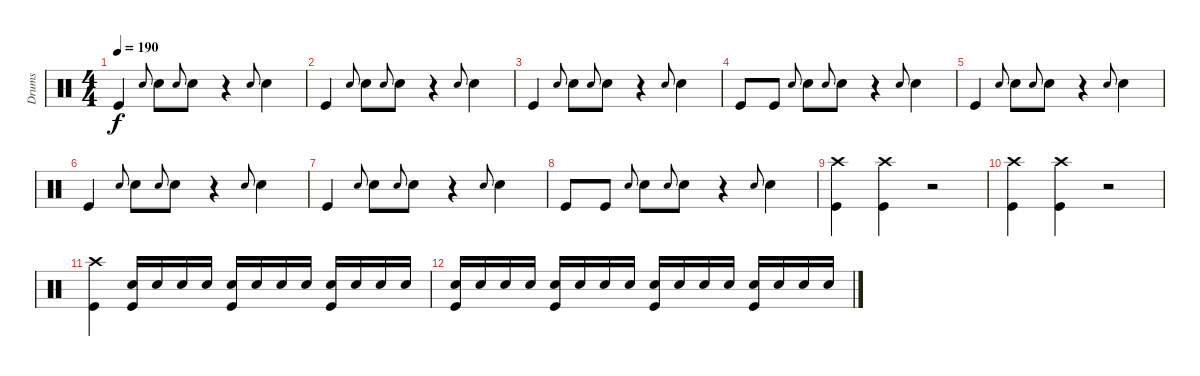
\track ("Drums" "Drums") {instrument percussion}
\staff {score}
\articulation defaults
\ts (4 4)
\tempo 190
\clef neutral
\ks c "Kick (hit)".4{dy f} "Snare (hit) 2".8{gr onbeat} "Snare (hit) 2".8 "Snare (hit) 2".8{gr onbeat} "Snare (hit) 2".8
r.4 "Snare (hit) 2".8{gr onbeat} "Snare (hit) 2".4 |
"Kick (hit)".4 "Snare (hit) 2".8{gr onbeat} "Snare (hit) 2".8 "Snare (hit) 2".8{gr onbeat} "Snare (hit) 2".8 r.4 "Snare (hit) 2".8{gr onbeat} "Snare (hit) 2".4 |
"Kick (hit)".4 "Snare (hit) 2".8{gr onbeat} "Snare (hit) 2".8 "Snare (hit) 2".8{gr onbeat} "Snare (hit) 2".8 r.4 "Snare (hit) 2".8{gr onbeat} "Snare (hit) 2".4 |
"Kick (hit)".8 "Kick (hit)".8 "Snare (hit) 2".8{gr onbeat} "Snare (hit) 2".8 "Snare (hit) 2".8{gr onbeat} "Snare (hit) 2".8 r.4 "Snare (hit) 2".8{gr onbeat} "Snare (hit) 2".4 |
"Kick (hit)".4 "Snare (hit) 2".8{gr onbeat} "Snare (hit) 2".8 "Snare (hit) 2".8{gr onbeat} "Snare (hit) 2".8 r.4 "Snare (hit) 2".8{gr onbeat} "Snare (hit) 2".4 |
"Kick (hit)".4 "Snare (hit) 2".8{gr onbeat} "Snare (hit) 2".8 "Snare (hit) 2".8{gr onbeat} "Snare (hit) 2".8 r.4 "Snare (hit) 2".8{gr onbeat} "Snare (hit) 2".4 |
"Kick (hit)".4 "Snare (hit) 2".8{gr onbeat} "Snare (hit) 2".8 "Snare (hit) 2".8{gr onbeat} "Snare (hit) 2".8 r.4 "Snare (hit) 2".8{gr onbeat} "Snare (hit) 2".4 |
"Kick (hit)".8 "Kick (hit)".8 "Snare (hit) 2".8{gr onbeat} "Snare (hit) 2".8 "Snare (hit) 2".8{gr onbeat} "Snare (hit) 2".8 r.4 "Snare (hit) 2".8{gr onbeat} "Snare (hit) 2".4 |
("Crash high (hit)" "Kick (hit)").4 ("Crash high (hit)" "Kick (hit)").4 r.2 |
("Crash high (hit)" "Kick (hit)").4 ("Crash high (hit)" "Kick (hit)").4 r.2 |
("Crash high (hit)" "Kick (hit)").4 ("Snare (hit) 2" "Kick (hit)").16 "Snare (hit) 2".16 "Snare (hit) 2".16 "Snare (hit) 2".16 ("Snare (hit) 2" "Kick (hit)").16 "Snare (hit) 2".16 "Snare (hit) 2".16 "Snare (hit) 2".16 ("Snare (hit) 2" "Kick (hit)").16 "Snare (hit) 2".16 "Snare (hit) 2".16 "Snare (hit) 2".16 |
("Snare (hit) 2" "Kick (hit)").16 "Snare (hit) 2".16 "Snare (hit) 2".16 "Snare (hit) 2".16 ("Snare (hit) 2" "Kick (hit)").16 "Snare (hit) 2".16 "Snare (hit) 2".16 "Snare (hit) 2".16 ("Snare (hit) 2" "Kick (hit)").16 "Snare (hit) 2".16 "Snare (hit) 2".16 "Snare (hit) 2".16 ("Snare (hit) 2" "Kick (hit)").16 "Snare (hit) 2".16 "Snare (hit) 2".16 "Snare (hit) 2".16
